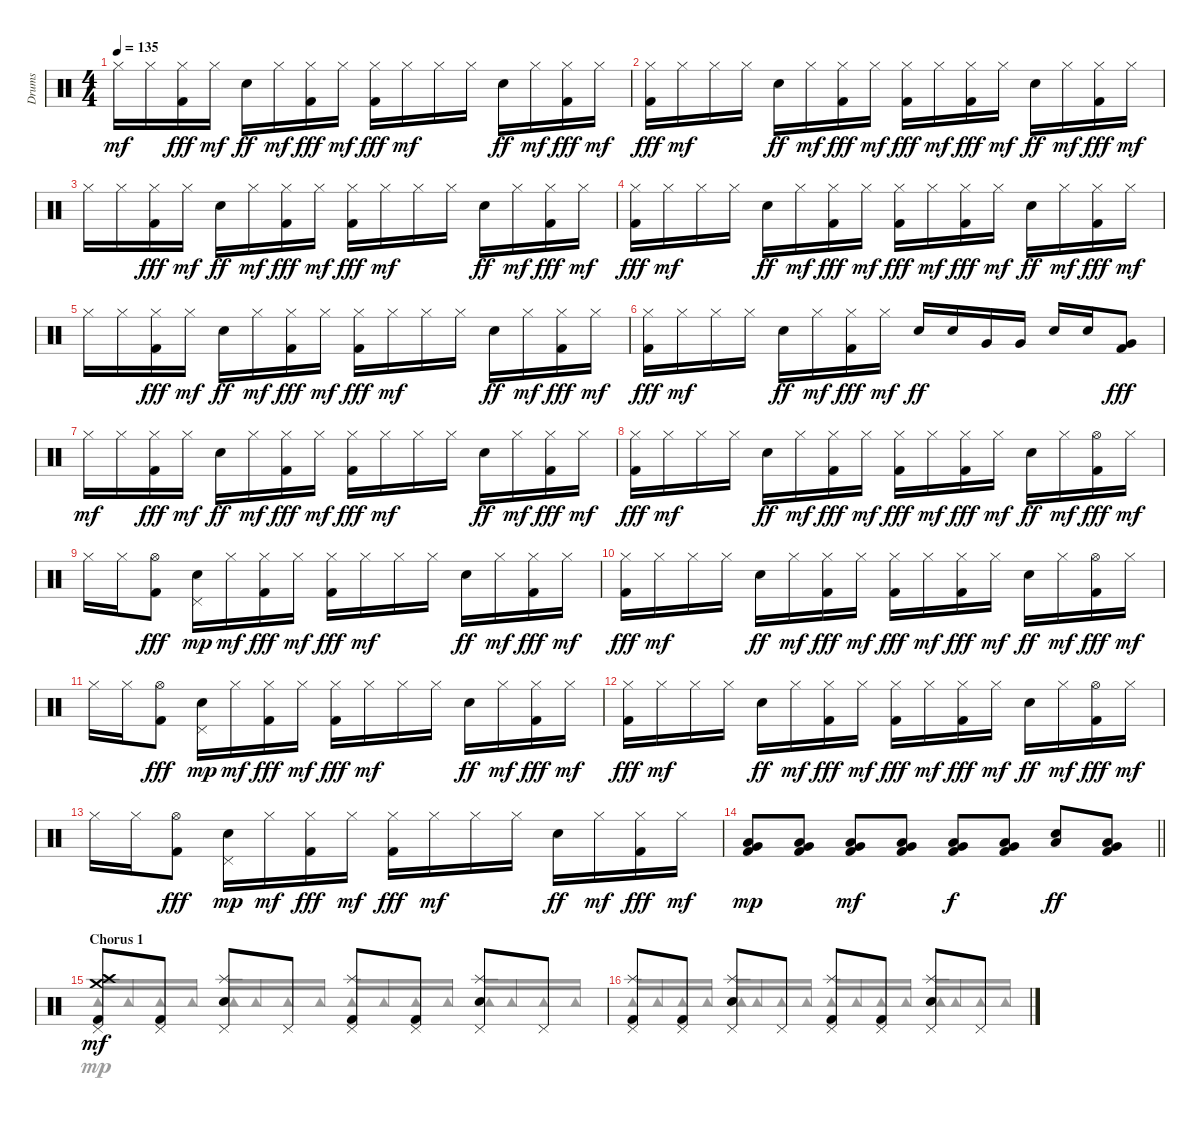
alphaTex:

\track ("Drums" "Drums") {instrument percussion}
\staff {score}
\articulation defaults
\voice
\ts (4 4)
\tempo 135
\clef neutral
\ks c "Hi-Hat (closed)".16{dy mf} "Hi-Hat (closed)".16
("Hi-Hat (closed)" "Kick (hit) 2").16{dy fff} "Hi-Hat (closed)".16{dy mf} "Snare (hit) 2".16{dy ff} "Hi-Hat (closed)".16{dy mf} ("Hi-Hat (closed)" "Kick (hit) 2").16{dy fff} "Hi-Hat (closed)".16{dy mf} ("Hi-Hat (closed)" "Kick (hit) 2").16{dy fff} "Hi-Hat (closed)".16{dy mf} "Hi-Hat (closed)".16 "Hi-Hat (closed)".16 "Snare (hit) 2".16{dy ff} "Hi-Hat (closed)".16{dy mf} ("Hi-Hat (closed)" "Kick (hit) 2").16{dy fff} "Hi-Hat (closed)".16{dy mf} |
("Hi-Hat (closed)" "Kick (hit) 2").16{dy fff} "Hi-Hat (closed)".16{dy mf} "Hi-Hat (closed)".16 "Hi-Hat (closed)".16 "Snare (hit) 2".16{dy ff} "Hi-Hat (closed)".16{dy mf} ("Hi-Hat (closed)" "Kick (hit) 2").16{dy fff} "Hi-Hat (closed)".16{dy mf} ("Hi-Hat (closed)" "Kick (hit) 2").16{dy fff} "Hi-Hat (closed)".16{dy mf} ("Hi-Hat (closed)" "Kick (hit) 2").16{dy fff} "Hi-Hat (closed)".16{dy mf} "Snare (hit) 2".16{dy ff} "Hi-Hat (closed)".16{dy mf} ("Hi-Hat (closed)" "Kick (hit) 2").16{dy fff} "Hi-Hat (closed)".16{dy mf} |
"Hi-Hat (closed)".16 "Hi-Hat (closed)".16 ("Hi-Hat (closed)" "Kick (hit) 2").16{dy fff} "Hi-Hat (closed)".16{dy mf} "Snare (hit) 2".16{dy ff} "Hi-Hat (closed)".16{dy mf} ("Hi-Hat (closed)" "Kick (hit) 2").16{dy fff} "Hi-Hat (closed)".16{dy mf} ("Hi-Hat (closed)" "Kick (hit) 2").16{dy fff} "Hi-Hat (closed)".16{dy mf} "Hi-Hat (closed)".16 "Hi-Hat (closed)".16 "Snare (hit) 2".16{dy ff} "Hi-Hat (closed)".16{dy mf} ("Hi-Hat (closed)" "Kick (hit) 2").16{dy fff} "Hi-Hat (closed)".16{dy mf} |
("Hi-Hat (closed)" "Kick (hit) 2").16{dy fff} "Hi-Hat (closed)".16{dy mf} "Hi-Hat (closed)".16 "Hi-Hat (closed)".16 "Snare (hit) 2".16{dy ff} "Hi-Hat (closed)".16{dy mf} ("Hi-Hat (closed)" "Kick (hit) 2").16{dy fff} "Hi-Hat (closed)".16{dy mf} ("Hi-Hat (closed)" "Kick (hit) 2").16{dy fff} "Hi-Hat (closed)".16{dy mf} ("Hi-Hat (closed)" "Kick (hit) 2").16{dy fff} "Hi-Hat (closed)".16{dy mf} "Snare (hit) 2".16{dy ff} "Hi-Hat (closed)".16{dy mf} ("Hi-Hat (closed)" "Kick (hit) 2").16{dy fff} "Hi-Hat (closed)".16{dy mf} |
"Hi-Hat (closed)".16 "Hi-Hat (closed)".16 ("Hi-Hat (closed)" "Kick (hit) 2").16{dy fff} "Hi-Hat (closed)".16{dy mf} "Snare (hit) 2".16{dy ff} "Hi-Hat (closed)".16{dy mf} ("Hi-Hat (closed)" "Kick (hit) 2").16{dy fff} "Hi-Hat (closed)".16{dy mf} ("Hi-Hat (closed)" "Kick (hit) 2").16{dy fff} "Hi-Hat (closed)".16{dy mf} "Hi-Hat (closed)".16 "Hi-Hat (closed)".16 "Snare (hit) 2".16{dy ff} "Hi-Hat (closed)".16{dy mf} ("Hi-Hat (closed)" "Kick (hit) 2").16{dy fff} "Hi-Hat (closed)".16{dy mf} |
("Hi-Hat (closed)" "Kick (hit) 2").16{dy fff} "Hi-Hat (closed)".16{dy mf} "Hi-Hat (closed)".16 "Hi-Hat (closed)".16 "Snare (hit) 2".16{dy ff} "Hi-Hat (closed)".16{dy mf} ("Hi-Hat (closed)" "Kick (hit) 2").16{dy fff} "Hi-Hat (closed)".16{dy mf} "Snare (hit) 2".16{dy ff} "Snare (hit) 2".16 "Very Low Tom (hit)".16 "Very Low Tom (hit)".16 "Snare (hit) 2".16 "Snare (hit) 2".16 ("Very Low Tom (hit)" "Kick (hit) 2").8{dy fff} |
"Hi-Hat (closed)".16{dy mf} "Hi-Hat (closed)".16 ("Hi-Hat (closed)" "Kick (hit) 2").16{dy fff} "Hi-Hat (closed)".16{dy mf} "Snare (hit) 2".16{dy ff} "Hi-Hat (closed)".16{dy mf} ("Hi-Hat (closed)" "Kick (hit) 2").16{dy fff} "Hi-Hat (closed)".16{dy mf} ("Hi-Hat (closed)" "Kick (hit) 2").16{dy fff} "Hi-Hat (closed)".16{dy mf} "Hi-Hat (closed)".16 "Hi-Hat (closed)".16 "Snare (hit) 2".16{dy ff} "Hi-Hat (closed)".16{dy mf} ("Hi-Hat (closed)" "Kick (hit) 2").16{dy fff} "Hi-Hat (closed)".16{dy mf} |
("Hi-Hat (closed)" "Kick (hit) 2").16{dy fff} "Hi-Hat (closed)".16{dy mf} "Hi-Hat (closed)".16 "Hi-Hat (closed)".16 "Snare (hit) 2".16{dy ff} "Hi-Hat (closed)".16{dy mf} ("Hi-Hat (closed)" "Kick (hit) 2").16{dy fff} "Hi-Hat (closed)".16{dy mf} ("Hi-Hat (closed)" "Kick (hit) 2").16{dy fff} "Hi-Hat (closed)".16{dy mf} ("Hi-Hat (closed)" "Kick (hit) 2").16{dy fff} "Hi-Hat (closed)".16{dy mf} "Snare (hit) 2".16{dy ff} "Hi-Hat (closed)".16{dy mf} ("Hi-Hat (open)" "Kick (hit) 2").16{dy fff} "Hi-Hat (closed)".16{dy mf} |
"Hi-Hat (closed)".16 "Hi-Hat (closed)".16 ("Hi-Hat (open)" "Kick (hit) 2").8{dy fff} ("Snare (hit) 2" "Pedal Hi-Hat (hit)").16{dy mp} "Hi-Hat (closed)".16{dy mf} ("Hi-Hat (closed)" "Kick (hit) 2").16{dy fff} "Hi-Hat (closed)".16{dy mf} ("Hi-Hat (closed)" "Kick (hit) 2").16{dy fff} "Hi-Hat (closed)".16{dy mf} "Hi-Hat (closed)".16 "Hi-Hat (closed)".16 "Snare (hit) 2".16{dy ff} "Hi-Hat (closed)".16{dy mf} ("Hi-Hat (closed)" "Kick (hit) 2").16{dy fff} "Hi-Hat (closed)".16{dy mf} |
("Hi-Hat (closed)" "Kick (hit) 2").16{dy fff} "Hi-Hat (closed)".16{dy mf} "Hi-Hat (closed)".16 "Hi-Hat (closed)".16 "Snare (hit) 2".16{dy ff} "Hi-Hat (closed)".16{dy mf} ("Hi-Hat (closed)" "Kick (hit) 2").16{dy fff} "Hi-Hat (closed)".16{dy mf} ("Hi-Hat (closed)" "Kick (hit) 2").16{dy fff} "Hi-Hat (closed)".16{dy mf} ("Hi-Hat (closed)" "Kick (hit) 2").16{dy fff} "Hi-Hat (closed)".16{dy mf} "Snare (hit) 2".16{dy ff} "Hi-Hat (closed)".16{dy mf} ("Hi-Hat (open)" "Kick (hit) 2").16{dy fff} "Hi-Hat (closed)".16{dy mf} |
"Hi-Hat (closed)".16 "Hi-Hat (closed)".16 ("Hi-Hat (open)" "Kick (hit) 2").8{dy fff} ("Snare (hit) 2" "Pedal Hi-Hat (hit)").16{dy mp} "Hi-Hat (closed)".16{dy mf} ("Hi-Hat (closed)" "Kick (hit) 2").16{dy fff} "Hi-Hat (closed)".16{dy mf} ("Hi-Hat (closed)" "Kick (hit) 2").16{dy fff} "Hi-Hat (closed)".16{dy mf} "Hi-Hat (closed)".16 "Hi-Hat (closed)".16 "Snare (hit) 2".16{dy ff} "Hi-Hat (closed)".16{dy mf} ("Hi-Hat (closed)" "Kick (hit) 2").16{dy fff} "Hi-Hat (closed)".16{dy mf} |
("Hi-Hat (closed)" "Kick (hit) 2").16{dy fff} "Hi-Hat (closed)".16{dy mf} "Hi-Hat (closed)".16 "Hi-Hat (closed)".16 "Snare (hit) 2".16{dy ff} "Hi-Hat (closed)".16{dy mf} ("Hi-Hat (closed)" "Kick (hit) 2").16{dy fff} "Hi-Hat (closed)".16{dy mf} ("Hi-Hat (closed)" "Kick (hit) 2").16{dy fff} "Hi-Hat (closed)".16{dy mf} ("Hi-Hat (closed)" "Kick (hit) 2").16{dy fff} "Hi-Hat (closed)".16{dy mf} "Snare (hit) 2".16{dy ff} "Hi-Hat (closed)".16{dy mf} ("Hi-Hat (open)" "Kick (hit) 2").16{dy fff} "Hi-Hat (closed)".16{dy mf} |
"Hi-Hat (closed)".16 "Hi-Hat (closed)".16 ("Hi-Hat (open)" "Kick (hit) 2").8{dy fff} ("Snare (hit) 2" "Pedal Hi-Hat (hit)").16{dy mp} "Hi-Hat (closed)".16{dy mf} ("Hi-Hat (closed)" "Kick (hit) 2").16{dy fff} "Hi-Hat (closed)".16{dy mf} ("Hi-Hat (closed)" "Kick (hit) 2").16{dy fff} "Hi-Hat (closed)".16{dy mf} "Hi-Hat (closed)".16 "Hi-Hat (closed)".16 "Snare (hit) 2".16{dy ff} "Hi-Hat (closed)".16{dy mf} ("Hi-Hat (closed)" "Kick (hit) 2").16{dy fff} "Hi-Hat (closed)".16{dy mf} |
\barLineRight lightlight
("Low Floor Tom (hit)" "Very Low Tom (hit)" "Kick (hit) 2").8{dy mp} ("Low Floor Tom (hit)" "Very Low Tom (hit)" "Kick (hit) 2").8 ("Low Floor Tom (hit)" "Very Low Tom (hit)" "Kick (hit) 2").8{dy mf} ("Low Floor Tom (hit)" "Very Low Tom (hit)" "Kick (hit) 2").8 ("Low Floor Tom (hit)" "Very Low Tom (hit)" "Kick (hit) 2").8{dy f} ("Low Floor Tom (hit)" "Very Low Tom (hit)" "Kick (hit) 2").8 ("Low Tom (hit)" "Snare (hit) 2").8{dy ff} ("Low Floor Tom (hit)" "Very Low Tom (hit)" "Kick (hit) 2").8 |
\section ("" "Chorus 1")
("Crash high (hit)" "Crash medium (hit)" "Kick (hit) 2" "Pedal Hi-Hat (hit)").8{dy mf} ("Kick (hit) 2" "Pedal Hi-Hat (hit)").8 ("Splash (hit)" "Snare (hit) 2" "Pedal Hi-Hat (hit)").8 "Pedal Hi-Hat (hit)".8 ("Splash (hit)" "Kick (hit) 2" "Pedal Hi-Hat (hit)").8 ("Kick (hit) 2" "Pedal Hi-Hat (hit)").8 ("Splash (hit)" "Snare (hit) 2" "Pedal Hi-Hat (hit)").8 "Pedal Hi-Hat (hit)".8 |
("Splash (hit)" "Kick (hit) 2" "Pedal Hi-Hat (hit)").8 ("Kick (hit) 2" "Pedal Hi-Hat (hit)").8 ("Splash (hit)" "Snare (hit) 2" "Pedal Hi-Hat (hit)").8 "Pedal Hi-Hat (hit)".8 ("Splash (hit)" "Kick (hit) 2" "Pedal Hi-Hat (hit)").8 ("Kick (hit) 2" "Pedal Hi-Hat (hit)").8 ("Splash (hit)" "Snare (hit) 2" "Pedal Hi-Hat (hit)").8 "Pedal Hi-Hat (hit)".8
\voice
\clef neutral
\ottava regular
\simile none
\ks c
|
|
|
|
|
|
|
|
|
|
|
|
|
\barLineRight lightlight
|
"Tambourine (hit)".16{dy mp beam Up} "Tambourine (hit)".16{beam Up} "Tambourine (hit)".16{beam Up} "Tambourine (hit)".16{beam Up} "Tambourine (hit)".16{beam Up} "Tambourine (hit)".16{beam Up} "Tambourine (hit)".16{beam Up} "Tambourine (hit)".16{beam Up} "Tambourine (hit)".16{beam Up} "Tambourine (hit)".16{beam Up} "Tambourine (hit)".16{beam Up} "Tambourine (hit)".16{beam Up} "Tambourine (hit)".16{beam Up} "Tambourine (hit)".16{beam Up} "Tambourine (hit)".16{beam Up} "Tambourine (hit)".16{beam Up} |
"Tambourine (hit)".16{beam Up} "Tambourine (hit)".16{beam Up} "Tambourine (hit)".16{beam Up} "Tambourine (hit)".16{beam Up} "Tambourine (hit)".16{beam Up} "Tambourine (hit)".16{beam Up} "Tambourine (hit)".16{beam Up} "Tambourine (hit)".16{beam Up} "Tambourine (hit)".16{beam Up} "Tambourine (hit)".16{beam Up} "Tambourine (hit)".16{beam Up} "Tambourine (hit)".16{beam Up} "Tambourine (hit)".16{beam Up} "Tambourine (hit)".16{beam Up} "Tambourine (hit)".16{beam Up} "Tambourine (hit)".16{beam Up}
